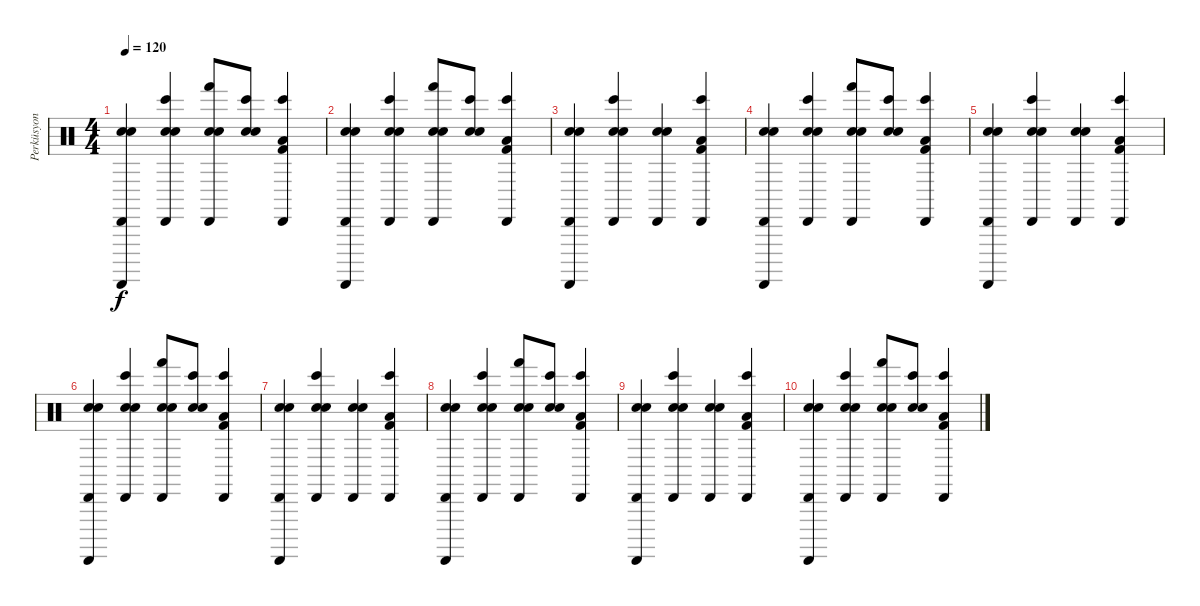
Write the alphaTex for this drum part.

\track ("Perküsyon" "Perküsyon") {instrument percussion}
\staff {score}
\articulation defaults
\ts (4 4)
\tempo 120
\clef neutral
\ks c
("Cabasa (hit)" "Guiro (scrap-return)" "Snare (hit) 2" "Electric Snare (hit)").4{dy f} ("Cabasa (hit)" "Bongo High (hit)" "Snare (hit) 2" "Electric Snare (hit)").4 ("Cabasa (hit)" "Hand (hit)" "Snare (hit) 2" "Electric Snare (hit)").8 ("Bongo High (hit)" "Snare (hit) 2" "Electric Snare (hit)").8 ("Cabasa (hit)" "Bongo High (hit)" "Kick (hit) 2" "Low Tom (hit)").4 |
("Cabasa (hit)" "Guiro (scrap-return)" "Snare (hit) 2" "Electric Snare (hit)").4 ("Cabasa (hit)" "Bongo High (hit)" "Snare (hit) 2" "Electric Snare (hit)").4 ("Cabasa (hit)" "Hand (hit)" "Snare (hit) 2" "Electric Snare (hit)").8 ("Bongo High (hit)" "Snare (hit) 2" "Electric Snare (hit)").8 ("Cabasa (hit)" "Bongo High (hit)" "Kick (hit) 2" "Low Tom (hit)").4 |
("Cabasa (hit)" "Guiro (scrap-return)" "Snare (hit) 2" "Electric Snare (hit)").4 ("Cabasa (hit)" "Bongo High (hit)" "Snare (hit) 2" "Electric Snare (hit)").4 ("Cabasa (hit)" "Snare (hit) 2" "Electric Snare (hit)").4 ("Cabasa (hit)" "Bongo High (hit)" "Kick (hit) 2" "Low Tom (hit)").4 |
("Cabasa (hit)" "Guiro (scrap-return)" "Snare (hit) 2" "Electric Snare (hit)").4 ("Cabasa (hit)" "Bongo High (hit)" "Snare (hit) 2" "Electric Snare (hit)").4 ("Cabasa (hit)" "Hand (hit)" "Snare (hit) 2" "Electric Snare (hit)").8 ("Bongo High (hit)" "Snare (hit) 2" "Electric Snare (hit)").8 ("Cabasa (hit)" "Bongo High (hit)" "Kick (hit) 2" "Low Tom (hit)").4 |
("Cabasa (hit)" "Guiro (scrap-return)" "Snare (hit) 2" "Electric Snare (hit)").4 ("Cabasa (hit)" "Bongo High (hit)" "Snare (hit) 2" "Electric Snare (hit)").4 ("Cabasa (hit)" "Snare (hit) 2" "Electric Snare (hit)").4 ("Cabasa (hit)" "Bongo High (hit)" "Kick (hit) 2" "Low Tom (hit)").4 |
("Cabasa (hit)" "Guiro (scrap-return)" "Snare (hit) 2" "Electric Snare (hit)").4 ("Cabasa (hit)" "Bongo High (hit)" "Snare (hit) 2" "Electric Snare (hit)").4 ("Cabasa (hit)" "Hand (hit)" "Snare (hit) 2" "Electric Snare (hit)").8 ("Bongo High (hit)" "Snare (hit) 2" "Electric Snare (hit)").8 ("Cabasa (hit)" "Bongo High (hit)" "Kick (hit) 2" "Low Tom (hit)").4 |
("Cabasa (hit)" "Guiro (scrap-return)" "Snare (hit) 2" "Electric Snare (hit)").4 ("Cabasa (hit)" "Bongo High (hit)" "Snare (hit) 2" "Electric Snare (hit)").4 ("Cabasa (hit)" "Snare (hit) 2" "Electric Snare (hit)").4 ("Cabasa (hit)" "Bongo High (hit)" "Kick (hit) 2" "Low Tom (hit)").4 |
("Cabasa (hit)" "Guiro (scrap-return)" "Snare (hit) 2" "Electric Snare (hit)").4 ("Cabasa (hit)" "Bongo High (hit)" "Snare (hit) 2" "Electric Snare (hit)").4 ("Cabasa (hit)" "Hand (hit)" "Snare (hit) 2" "Electric Snare (hit)").8 ("Bongo High (hit)" "Snare (hit) 2" "Electric Snare (hit)").8 ("Cabasa (hit)" "Bongo High (hit)" "Kick (hit) 2" "Low Tom (hit)").4 |
("Cabasa (hit)" "Guiro (scrap-return)" "Snare (hit) 2" "Electric Snare (hit)").4 ("Cabasa (hit)" "Bongo High (hit)" "Snare (hit) 2" "Electric Snare (hit)").4 ("Cabasa (hit)" "Snare (hit) 2" "Electric Snare (hit)").4 ("Cabasa (hit)" "Bongo High (hit)" "Kick (hit) 2" "Low Tom (hit)").4 |
("Cabasa (hit)" "Guiro (scrap-return)" "Snare (hit) 2" "Electric Snare (hit)").4 ("Cabasa (hit)" "Bongo High (hit)" "Snare (hit) 2" "Electric Snare (hit)").4 ("Cabasa (hit)" "Hand (hit)" "Snare (hit) 2" "Electric Snare (hit)").8 ("Bongo High (hit)" "Snare (hit) 2" "Electric Snare (hit)").8 ("Cabasa (hit)" "Bongo High (hit)" "Kick (hit) 2" "Low Tom (hit)").4
